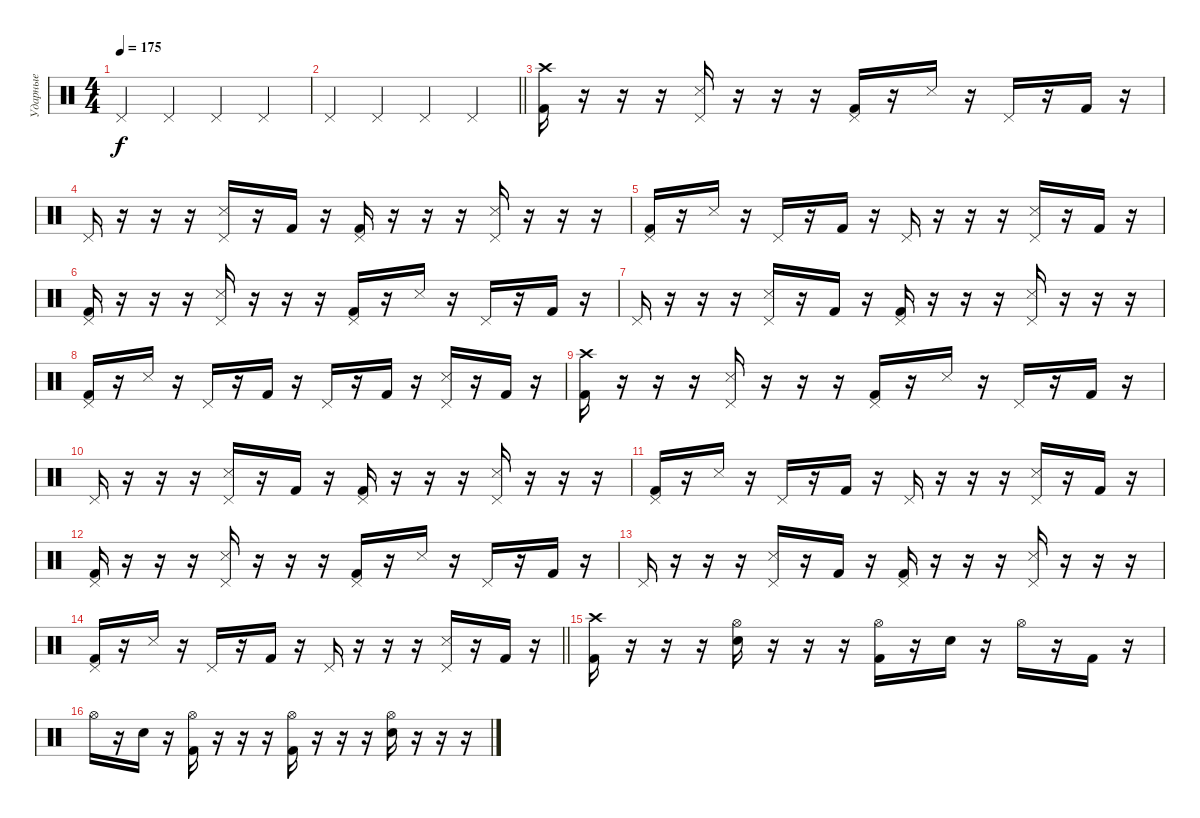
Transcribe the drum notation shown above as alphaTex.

\track ("Ударные" "Ударные") {instrument percussion}
\staff {score}
\articulation defaults
\ts (4 4)
\tempo 175
\clef neutral
\ks c "Pedal Hi-Hat (hit)".4{dy f} "Pedal Hi-Hat (hit)".4 "Pedal Hi-Hat (hit)".4 "Pedal Hi-Hat (hit)".4
|
\barLineRight lightlight "Pedal Hi-Hat (hit)".4 "Pedal Hi-Hat (hit)".4 "Pedal Hi-Hat (hit)".4 "Pedal Hi-Hat (hit)".4
|
\section ("" " ")
("Crash high (hit)" "Kick (hit) 2").16 r.16 r.16 r.16 ("Pedal Hi-Hat (hit)" "Snare (side stick) 3").16 r.16 r.16 r.16 ("Pedal Hi-Hat (hit)" "Kick (hit) 2").16 r.16 "Snare (side stick) 3".16 r.16 "Pedal Hi-Hat (hit)".16 r.16 "Kick (hit) 2".16 r.16 |
"Pedal Hi-Hat (hit)".16 r.16 r.16 r.16 ("Pedal Hi-Hat (hit)" "Snare (side stick) 3").16 r.16 "Kick (hit) 2".16 r.16 ("Pedal Hi-Hat (hit)" "Kick (hit) 2").16 r.16 r.16 r.16 ("Pedal Hi-Hat (hit)" "Snare (side stick) 3").16 r.16 r.16 r.16 |
("Pedal Hi-Hat (hit)" "Kick (hit) 2").16 r.16 "Snare (side stick) 3".16 r.16 "Pedal Hi-Hat (hit)".16 r.16 "Kick (hit) 2".16 r.16 "Pedal Hi-Hat (hit)".16 r.16 r.16 r.16 ("Pedal Hi-Hat (hit)" "Snare (side stick) 3").16 r.16 "Kick (hit) 2".16 r.16 |
("Pedal Hi-Hat (hit)" "Kick (hit) 2").16 r.16 r.16 r.16 ("Pedal Hi-Hat (hit)" "Snare (side stick) 3").16 r.16 r.16 r.16 ("Pedal Hi-Hat (hit)" "Kick (hit) 2").16 r.16 "Snare (side stick) 3".16 r.16 "Pedal Hi-Hat (hit)".16 r.16 "Kick (hit) 2".16 r.16 |
"Pedal Hi-Hat (hit)".16 r.16 r.16 r.16 ("Pedal Hi-Hat (hit)" "Snare (side stick) 3").16 r.16 "Kick (hit) 2".16 r.16 ("Pedal Hi-Hat (hit)" "Kick (hit) 2").16 r.16 r.16 r.16 ("Pedal Hi-Hat (hit)" "Snare (side stick) 3").16 r.16 r.16 r.16 |
("Pedal Hi-Hat (hit)" "Kick (hit) 2").16 r.16 "Snare (side stick) 3".16 r.16 "Pedal Hi-Hat (hit)".16 r.16 "Kick (hit) 2".16 r.16 "Pedal Hi-Hat (hit)".16 r.16 "Kick (hit) 2".16 r.16 ("Pedal Hi-Hat (hit)" "Snare (side stick) 3").16 r.16 "Kick (hit) 2".16 r.16 |
("Crash high (hit)" "Kick (hit) 2").16 r.16 r.16 r.16 ("Pedal Hi-Hat (hit)" "Snare (side stick) 3").16 r.16 r.16 r.16 ("Pedal Hi-Hat (hit)" "Kick (hit) 2").16 r.16 "Snare (side stick) 3".16 r.16 "Pedal Hi-Hat (hit)".16 r.16 "Kick (hit) 2".16 r.16 |
"Pedal Hi-Hat (hit)".16 r.16 r.16 r.16 ("Pedal Hi-Hat (hit)" "Snare (side stick) 3").16 r.16 "Kick (hit) 2".16 r.16 ("Pedal Hi-Hat (hit)" "Kick (hit) 2").16 r.16 r.16 r.16 ("Pedal Hi-Hat (hit)" "Snare (side stick) 3").16 r.16 r.16 r.16 |
("Pedal Hi-Hat (hit)" "Kick (hit) 2").16 r.16 "Snare (side stick) 3".16 r.16 "Pedal Hi-Hat (hit)".16 r.16 "Kick (hit) 2".16 r.16 "Pedal Hi-Hat (hit)".16 r.16 r.16 r.16 ("Pedal Hi-Hat (hit)" "Snare (side stick) 3").16 r.16 "Kick (hit) 2".16 r.16 |
("Pedal Hi-Hat (hit)" "Kick (hit) 2").16 r.16 r.16 r.16 ("Pedal Hi-Hat (hit)" "Snare (side stick) 3").16 r.16 r.16 r.16 ("Pedal Hi-Hat (hit)" "Kick (hit) 2").16 r.16 "Snare (side stick) 3".16 r.16 "Pedal Hi-Hat (hit)".16 r.16 "Kick (hit) 2".16 r.16 |
"Pedal Hi-Hat (hit)".16 r.16 r.16 r.16 ("Pedal Hi-Hat (hit)" "Snare (side stick) 3").16 r.16 "Kick (hit) 2".16 r.16 ("Pedal Hi-Hat (hit)" "Kick (hit) 2").16 r.16 r.16 r.16 ("Pedal Hi-Hat (hit)" "Snare (side stick) 3").16 r.16 r.16 r.16 |
\barLineRight lightlight
("Pedal Hi-Hat (hit)" "Kick (hit) 2").16 r.16 "Snare (side stick) 3".16 r.16 "Pedal Hi-Hat (hit)".16 r.16 "Kick (hit) 2".16 r.16 "Pedal Hi-Hat (hit)".16 r.16 r.16 r.16 ("Pedal Hi-Hat (hit)" "Snare (side stick) 3").16 r.16 "Kick (hit) 2".16 r.16 |
\section ("" " ")
("Crash high (hit)" "Kick (hit) 2").16 r.16 r.16 r.16 ("Hi-Hat (open)" "Electric Snare (hit)").16 r.16 r.16 r.16 ("Hi-Hat (open)" "Kick (hit) 2").16 r.16 "Electric Snare (hit)".16 r.16 "Hi-Hat (open)".16 r.16 "Kick (hit) 2".16 r.16 |
"Hi-Hat (open)".16 r.16 "Electric Snare (hit)".16 r.16 ("Hi-Hat (open)" "Kick (hit) 2").16 r.16 r.16 r.16 ("Hi-Hat (open)" "Kick (hit) 2").16 r.16 r.16 r.16 ("Hi-Hat (open)" "Electric Snare (hit)").16 r.16 r.16 r.16
